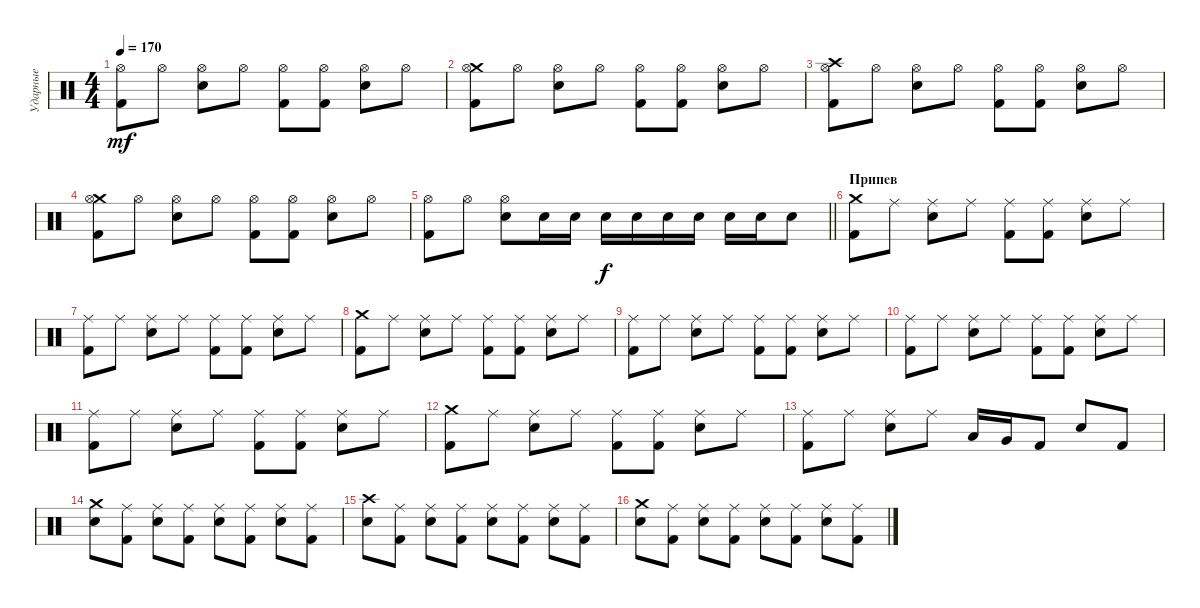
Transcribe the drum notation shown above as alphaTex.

\track ("Ударные" "Ударные") {instrument percussion}
\staff {score}
\articulation defaults
\ts (4 4)
\tempo 170
\clef neutral
\ks c
("Hi-Hat (open)" "Kick (hit) 2").8{dy mf} "Hi-Hat (open)".8 ("Hi-Hat (open)" "Snare (hit) 2").8 "Hi-Hat (open)".8 ("Hi-Hat (open)" "Kick (hit) 2").8 ("Hi-Hat (open)" "Kick (hit) 2").8 ("Hi-Hat (open)" "Snare (hit) 2").8 "Hi-Hat (open)".8 |
("Crash medium (hit)" "Hi-Hat (open)" "Kick (hit) 2").8 "Hi-Hat (open)".8 ("Hi-Hat (open)" "Snare (hit) 2").8 "Hi-Hat (open)".8 ("Hi-Hat (open)" "Kick (hit) 2").8 ("Hi-Hat (open)" "Kick (hit) 2").8 ("Hi-Hat (open)" "Snare (hit) 2").8 "Hi-Hat (open)".8 |
("Crash high (hit)" "Hi-Hat (open)" "Kick (hit) 2").8 "Hi-Hat (open)".8 ("Hi-Hat (open)" "Snare (hit) 2").8 "Hi-Hat (open)".8 ("Hi-Hat (open)" "Kick (hit) 2").8 ("Hi-Hat (open)" "Kick (hit) 2").8 ("Hi-Hat (open)" "Snare (hit) 2").8 "Hi-Hat (open)".8 |
("Crash medium (hit)" "Hi-Hat (open)" "Kick (hit) 2").8 "Hi-Hat (open)".8 ("Hi-Hat (open)" "Snare (hit) 2").8 "Hi-Hat (open)".8 ("Hi-Hat (open)" "Kick (hit) 2").8 ("Hi-Hat (open)" "Kick (hit) 2").8 ("Hi-Hat (open)" "Snare (hit) 2").8 "Hi-Hat (open)".8 |
\barLineRight lightlight
("Hi-Hat (open)" "Kick (hit) 2").8 "Hi-Hat (open)".8 ("Hi-Hat (open)" "Snare (hit) 2").8 "Snare (hit) 2".16 "Snare (hit) 2".16 "Snare (hit) 2".16{dy f} "Snare (hit) 2".16 "Snare (hit) 2".16 "Snare (hit) 2".16 "Snare (hit) 2".16 "Snare (hit) 2".16 "Snare (hit) 2".8 |
\section ("" "Припев")
("Crash medium (hit)" "Kick (hit) 2").8 "Ride (middle)".8 ("Ride (middle)" "Snare (hit) 2").8 "Ride (middle)".8 ("Ride (middle)" "Kick (hit) 2").8 ("Ride (middle)" "Kick (hit) 2").8 ("Ride (middle)" "Snare (hit) 2").8 "Ride (middle)".8 |
("Ride (middle)" "Kick (hit) 2").8 "Ride (middle)".8 ("Ride (middle)" "Snare (hit) 2").8 "Ride (middle)".8 ("Ride (middle)" "Kick (hit) 2").8 ("Ride (middle)" "Kick (hit) 2").8 ("Ride (middle)" "Snare (hit) 2").8 "Ride (middle)".8 |
("Crash medium (hit)" "Kick (hit) 2").8 "Ride (middle)".8 ("Ride (middle)" "Snare (hit) 2").8 "Ride (middle)".8 ("Ride (middle)" "Kick (hit) 2").8 ("Ride (middle)" "Kick (hit) 2").8 ("Ride (middle)" "Snare (hit) 2").8 "Ride (middle)".8 |
("Ride (middle)" "Kick (hit) 2").8 "Ride (middle)".8 ("Ride (middle)" "Snare (hit) 2").8 "Ride (middle)".8 ("Ride (middle)" "Kick (hit) 2").8 ("Ride (middle)" "Kick (hit) 2").8 ("Ride (middle)" "Snare (hit) 2").8 "Ride (middle)".8 |
("Ride (middle)" "Kick (hit) 2").8 "Ride (middle)".8 ("Ride (middle)" "Snare (hit) 2").8 "Ride (middle)".8 ("Ride (middle)" "Kick (hit) 2").8 ("Ride (middle)" "Kick (hit) 2").8 ("Ride (middle)" "Snare (hit) 2").8 "Ride (middle)".8 |
("Ride (middle)" "Kick (hit) 2").8 "Ride (middle)".8 ("Ride (middle)" "Snare (hit) 2").8 "Ride (middle)".8 ("Ride (middle)" "Kick (hit) 2").8 ("Ride (middle)" "Kick (hit) 2").8 ("Ride (middle)" "Snare (hit) 2").8 "Ride (middle)".8 |
("Crash medium (hit)" "Kick (hit) 2").8 "Ride (middle)".8 ("Ride (middle)" "Snare (hit) 2").8 "Ride (middle)".8 ("Ride (middle)" "Kick (hit) 2").8 ("Ride (middle)" "Kick (hit) 2").8 ("Ride (middle)" "Snare (hit) 2").8 "Ride (middle)".8 |
("Ride (middle)" "Kick (hit) 2").8 "Ride (middle)".8 ("Ride (middle)" "Snare (hit) 2").8 "Ride (middle)".8 "Low Tom (hit)".16 "Very Low Tom (hit)".16 "Kick (hit) 2".8 "Snare (hit) 2".8 "Kick (hit) 2".8 |
("Crash medium (hit)" "Snare (hit) 2").8 ("Ride (middle)" "Kick (hit) 2").8 ("Ride (middle)" "Snare (hit) 2").8 ("Ride (middle)" "Kick (hit) 2").8 ("Ride (middle)" "Snare (hit) 2").8 ("Ride (middle)" "Kick (hit) 2").8 ("Ride (middle)" "Snare (hit) 2").8 ("Ride (middle)" "Kick (hit) 2").8 |
("Crash high (hit)" "Snare (hit) 2").8 ("Ride (middle)" "Kick (hit) 2").8 ("Ride (middle)" "Snare (hit) 2").8 ("Ride (middle)" "Kick (hit) 2").8 ("Ride (middle)" "Snare (hit) 2").8 ("Ride (middle)" "Kick (hit) 2").8 ("Ride (middle)" "Snare (hit) 2").8 ("Ride (middle)" "Kick (hit) 2").8 |
("Crash medium (hit)" "Snare (hit) 2").8 ("Ride (middle)" "Kick (hit) 2").8 ("Ride (middle)" "Snare (hit) 2").8 ("Ride (middle)" "Kick (hit) 2").8 ("Ride (middle)" "Snare (hit) 2").8 ("Ride (middle)" "Kick (hit) 2").8 ("Ride (middle)" "Snare (hit) 2").8 ("Ride (middle)" "Kick (hit) 2").8
